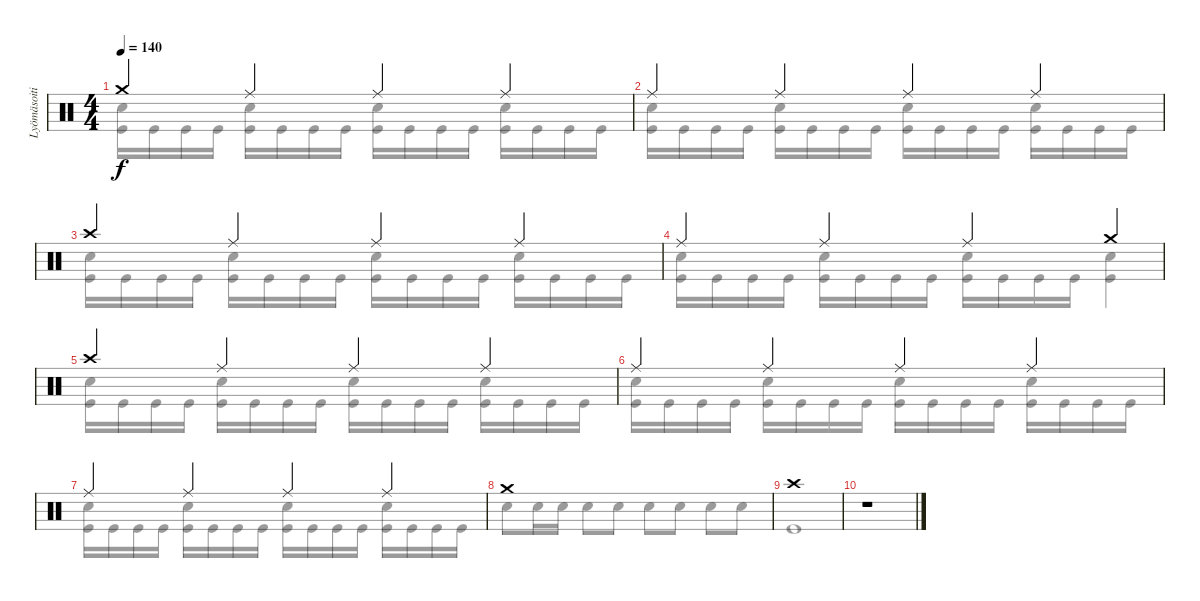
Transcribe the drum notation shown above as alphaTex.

\track ("Lyömäsoitin" "Lyömäsoiti") {instrument percussion}
\staff {score}
\articulation defaults
\voice
\ts (4 4)
\tempo 140
\clef neutral
\ks c "Crash medium (hit)".4{dy f} "Ride (middle)".4 "Ride (middle)".4 "Ride (middle)".4
|
"Ride (middle)".4 "Ride (middle)".4 "Ride (middle)".4 "Ride (middle)".4 |
"Crash high (hit)".4 "Ride (middle)".4 "Ride (middle)".4 "Ride (middle)".4 |
"Ride (middle)".4 "Ride (middle)".4 "Ride (middle)".4 "Crash medium (hit)".4 |
"Crash high (hit)".4 "Ride (middle)".4 "Ride (middle)".4 "Ride (middle)".4 |
"Ride (middle)".4 "Ride (middle)".4 "Ride (middle)".4 "Ride (middle)".4 |
"Ride (middle)".4 "Ride (middle)".4 "Ride (middle)".4 "Ride (middle)".4 |
"Crash medium (hit)".1 |
"Crash high (hit)".1 |
r.1
\voice
\clef neutral
\ottava regular
\simile none
\ks c
("Snare (hit) 2" "Kick (hit)").16{dy f} "Kick (hit)".16 "Kick (hit)".16 "Kick (hit)".16 ("Snare (hit) 2" "Kick (hit)").16 "Kick (hit)".16 "Kick (hit)".16 "Kick (hit)".16 ("Snare (hit) 2" "Kick (hit)").16 "Kick (hit)".16 "Kick (hit)".16 "Kick (hit)".16 ("Snare (hit) 2" "Kick (hit)").16 "Kick (hit)".16 "Kick (hit)".16 "Kick (hit)".16 |
("Snare (hit) 2" "Kick (hit)").16 "Kick (hit)".16 "Kick (hit)".16 "Kick (hit)".16 ("Snare (hit) 2" "Kick (hit)").16 "Kick (hit)".16 "Kick (hit)".16 "Kick (hit)".16 ("Snare (hit) 2" "Kick (hit)").16 "Kick (hit)".16 "Kick (hit)".16 "Kick (hit)".16 ("Snare (hit) 2" "Kick (hit)").16 "Kick (hit)".16 "Kick (hit)".16 "Kick (hit)".16 |
("Snare (hit) 2" "Kick (hit)").16 "Kick (hit)".16 "Kick (hit)".16 "Kick (hit)".16 ("Snare (hit) 2" "Kick (hit)").16 "Kick (hit)".16 "Kick (hit)".16 "Kick (hit)".16 ("Snare (hit) 2" "Kick (hit)").16 "Kick (hit)".16 "Kick (hit)".16 "Kick (hit)".16 ("Snare (hit) 2" "Kick (hit)").16 "Kick (hit)".16 "Kick (hit)".16 "Kick (hit)".16 |
("Snare (hit) 2" "Kick (hit)").16 "Kick (hit)".16 "Kick (hit)".16 "Kick (hit)".16 ("Snare (hit) 2" "Kick (hit)").16 "Kick (hit)".16 "Kick (hit)".16 "Kick (hit)".16 ("Snare (hit) 2" "Kick (hit)").16 "Kick (hit)".16 "Kick (hit)".16 "Kick (hit)".16 ("Snare (hit) 2" "Kick (hit)").4 |
("Snare (hit) 2" "Kick (hit)").16 "Kick (hit)".16 "Kick (hit)".16 "Kick (hit)".16 ("Snare (hit) 2" "Kick (hit)").16 "Kick (hit)".16 "Kick (hit)".16 "Kick (hit)".16 ("Snare (hit) 2" "Kick (hit)").16 "Kick (hit)".16 "Kick (hit)".16 "Kick (hit)".16 ("Snare (hit) 2" "Kick (hit)").16 "Kick (hit)".16 "Kick (hit)".16 "Kick (hit)".16 |
("Snare (hit) 2" "Kick (hit)").16 "Kick (hit)".16 "Kick (hit)".16 "Kick (hit)".16 ("Snare (hit) 2" "Kick (hit)").16 "Kick (hit)".16 "Kick (hit)".16 "Kick (hit)".16 ("Snare (hit) 2" "Kick (hit)").16 "Kick (hit)".16 "Kick (hit)".16 "Kick (hit)".16 ("Snare (hit) 2" "Kick (hit)").16 "Kick (hit)".16 "Kick (hit)".16 "Kick (hit)".16 |
("Snare (hit) 2" "Kick (hit)").16 "Kick (hit)".16 "Kick (hit)".16 "Kick (hit)".16 ("Snare (hit) 2" "Kick (hit)").16 "Kick (hit)".16 "Kick (hit)".16 "Kick (hit)".16 ("Snare (hit) 2" "Kick (hit)").16 "Kick (hit)".16 "Kick (hit)".16 "Kick (hit)".16 ("Snare (hit) 2" "Kick (hit)").16 "Kick (hit)".16 "Kick (hit)".16 "Kick (hit)".16 |
"Snare (hit) 2".8 "Snare (hit) 2".16 "Snare (hit) 2".16 "Snare (hit) 2".8 "Snare (hit) 2".8 "Snare (hit) 2".8 "Snare (hit) 2".8 "Snare (hit) 2".8 "Snare (hit) 2".8 |
"Kick (hit)".1 |
r.1
